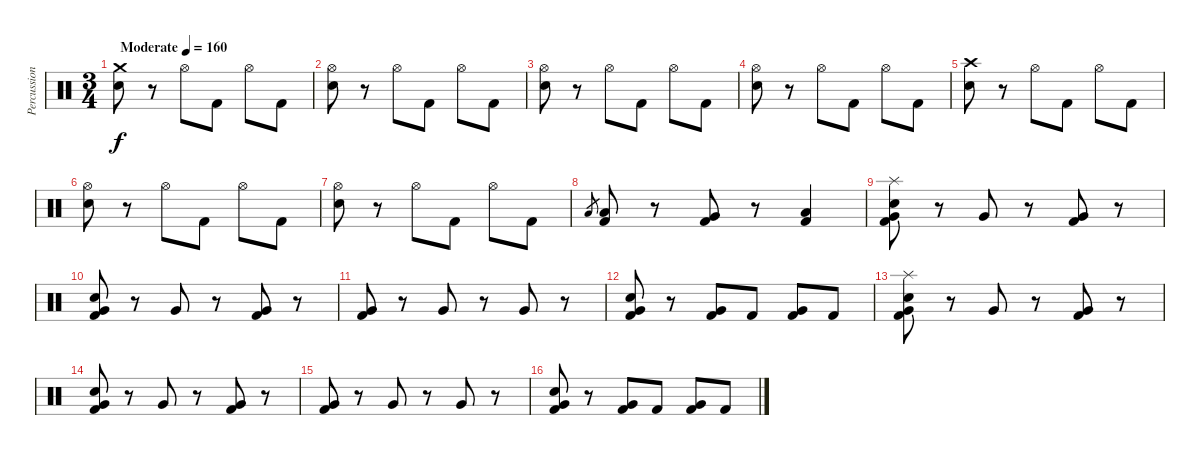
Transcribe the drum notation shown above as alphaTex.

\track ("Percussion" "Percussion") {instrument percussion}
\staff {score}
\articulation defaults
\ts (3 4)
\tempo (160 "Moderate")
\clef neutral
\ks c
("Crash medium (hit)" "Snare (hit) 2").8{dy f} r.8 "Hi-Hat (open)".8 "Kick (hit) 2".8 "Hi-Hat (open)".8 "Kick (hit) 2".8 |
("Hi-Hat (open)" "Snare (hit) 2").8 r.8 "Hi-Hat (open)".8 "Kick (hit) 2".8 "Hi-Hat (open)".8 "Kick (hit) 2".8 |
("Hi-Hat (open)" "Snare (hit) 2").8 r.8 "Hi-Hat (open)".8 "Kick (hit) 2".8 "Hi-Hat (open)".8 "Kick (hit) 2".8 |
("Hi-Hat (open)" "Snare (hit) 2").8 r.8 "Hi-Hat (open)".8 "Kick (hit) 2".8 "Hi-Hat (open)".8 "Kick (hit) 2".8 |
("Crash high (hit)" "Snare (hit) 2").8 r.8 "Hi-Hat (open)".8 "Kick (hit) 2".8 "Hi-Hat (open)".8 "Kick (hit) 2".8 |
("Hi-Hat (open)" "Snare (hit) 2").8 r.8 "Hi-Hat (open)".8 "Kick (hit) 2".8 "Hi-Hat (open)".8 "Kick (hit) 2".8 |
("Hi-Hat (open)" "Snare (hit) 2").8 r.8 "Hi-Hat (open)".8 "Kick (hit) 2".8 "Hi-Hat (open)".8 "Kick (hit) 2".8 |
"Low Tom (hit)".8{gr} ("Low Tom (hit)" "Kick (hit) 2").8 r.8 ("Very Low Tom (hit)" "Kick (hit) 2").8 r.8 ("Low Floor Tom (hit)" "Kick (hit) 2").4 |
("Splash (hit)" "Snare (hit) 2" "Kick (hit) 2" "Very Low Tom (hit)").8 r.8 "Very Low Tom (hit)".8 r.8 ("Kick (hit) 2" "Very Low Tom (hit)").8 r.8 |
("Snare (hit) 2" "Kick (hit) 2" "Very Low Tom (hit)").8 r.8 "Very Low Tom (hit)".8 r.8 ("Kick (hit) 2" "Very Low Tom (hit)").8 r.8 |
("Kick (hit) 2" "Very Low Tom (hit)").8 r.8 "Very Low Tom (hit)".8 r.8 "Very Low Tom (hit)".8 r.8 |
("Snare (hit) 2" "Kick (hit) 2" "Very Low Tom (hit)").8 r.8 ("Kick (hit) 2" "Very Low Tom (hit)").8 "Kick (hit) 2".8 ("Kick (hit) 2" "Very Low Tom (hit)").8 "Kick (hit) 2".8 |
("Splash (hit)" "Snare (hit) 2" "Kick (hit) 2" "Very Low Tom (hit)").8 r.8 "Very Low Tom (hit)".8 r.8 ("Kick (hit) 2" "Very Low Tom (hit)").8 r.8 |
("Snare (hit) 2" "Kick (hit) 2" "Very Low Tom (hit)").8 r.8 "Very Low Tom (hit)".8 r.8 ("Kick (hit) 2" "Very Low Tom (hit)").8 r.8 |
("Kick (hit) 2" "Very Low Tom (hit)").8 r.8 "Very Low Tom (hit)".8 r.8 "Very Low Tom (hit)".8 r.8 |
("Snare (hit) 2" "Kick (hit) 2" "Very Low Tom (hit)").8 r.8 ("Kick (hit) 2" "Very Low Tom (hit)").8 "Kick (hit) 2".8 ("Kick (hit) 2" "Very Low Tom (hit)").8 "Kick (hit) 2".8
